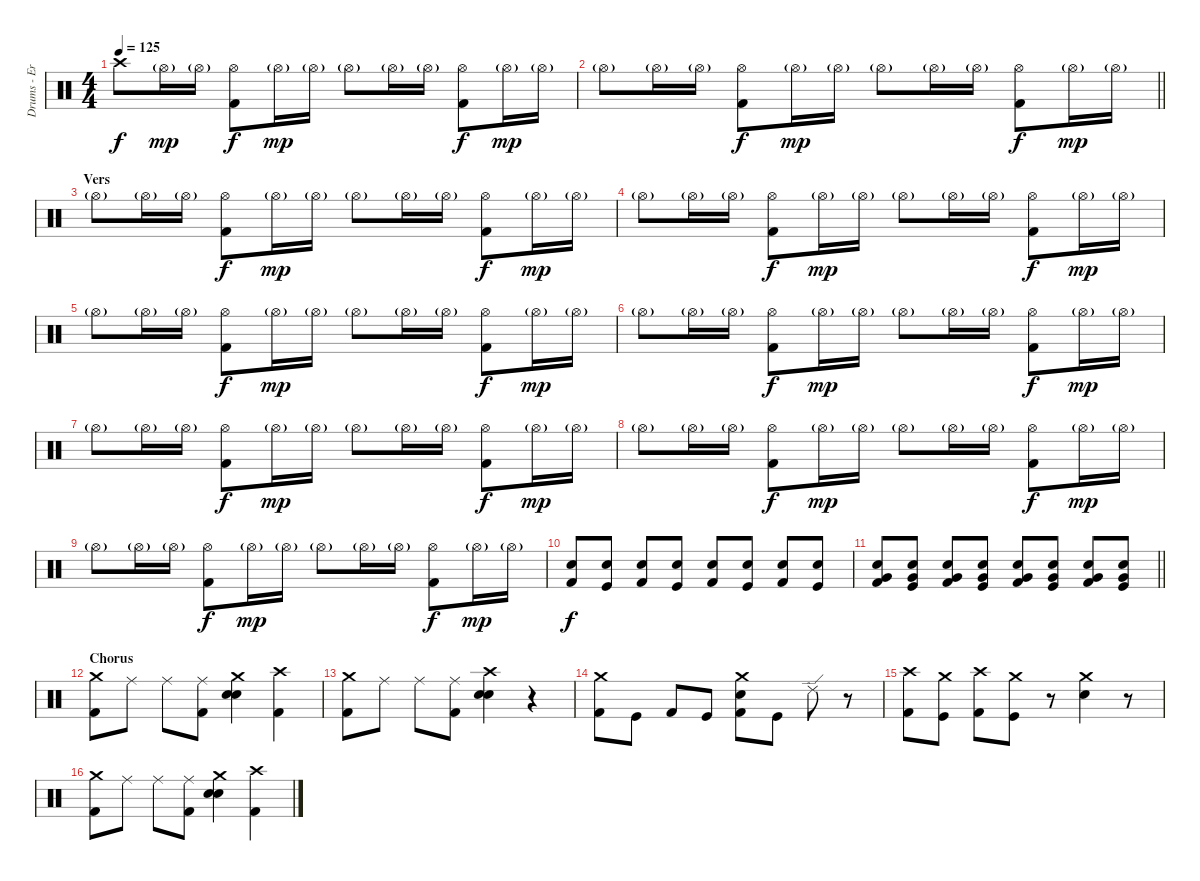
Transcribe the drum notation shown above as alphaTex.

\track ("Drums - Eric Young" "Drums - Er") {instrument percussion}
\staff {score}
\articulation defaults
\ts (4 4)
\tempo 125
\clef neutral
\ks c "Crash high (hit)".8{dy f} "Hi-Hat (open)"{g}.16{dy mp} "Hi-Hat (open)"{g}.16
("Hi-Hat (open)" "Kick (hit) 2").8{dy f} "Hi-Hat (open)"{g}.16{dy mp} "Hi-Hat (open)"{g}.16 "Hi-Hat (open)"{g}.8 "Hi-Hat (open)"{g}.16 "Hi-Hat (open)"{g}.16 ("Hi-Hat (open)" "Kick (hit) 2").8{dy f} "Hi-Hat (open)"{g}.16{dy mp} "Hi-Hat (open)"{g}.16 |
\barLineRight lightlight "Hi-Hat (open)"{g}.8 "Hi-Hat (open)"{g}.16 "Hi-Hat (open)"{g}.16
("Hi-Hat (open)" "Kick (hit) 2").8{dy f} "Hi-Hat (open)"{g}.16{dy mp} "Hi-Hat (open)"{g}.16 "Hi-Hat (open)"{g}.8 "Hi-Hat (open)"{g}.16 "Hi-Hat (open)"{g}.16 ("Hi-Hat (open)" "Kick (hit) 2").8{dy f} "Hi-Hat (open)"{g}.16{dy mp} "Hi-Hat (open)"{g}.16 |
\section ("" "Vers")
"Hi-Hat (open)"{g}.8 "Hi-Hat (open)"{g}.16 "Hi-Hat (open)"{g}.16 ("Hi-Hat (open)" "Kick (hit) 2").8{dy f} "Hi-Hat (open)"{g}.16{dy mp} "Hi-Hat (open)"{g}.16 "Hi-Hat (open)"{g}.8 "Hi-Hat (open)"{g}.16 "Hi-Hat (open)"{g}.16 ("Hi-Hat (open)" "Kick (hit) 2").8{dy f} "Hi-Hat (open)"{g}.16{dy mp} "Hi-Hat (open)"{g}.16 |
"Hi-Hat (open)"{g}.8 "Hi-Hat (open)"{g}.16 "Hi-Hat (open)"{g}.16 ("Hi-Hat (open)" "Kick (hit) 2").8{dy f} "Hi-Hat (open)"{g}.16{dy mp} "Hi-Hat (open)"{g}.16 "Hi-Hat (open)"{g}.8 "Hi-Hat (open)"{g}.16 "Hi-Hat (open)"{g}.16 ("Hi-Hat (open)" "Kick (hit) 2").8{dy f} "Hi-Hat (open)"{g}.16{dy mp} "Hi-Hat (open)"{g}.16 |
"Hi-Hat (open)"{g}.8 "Hi-Hat (open)"{g}.16 "Hi-Hat (open)"{g}.16 ("Hi-Hat (open)" "Kick (hit) 2").8{dy f} "Hi-Hat (open)"{g}.16{dy mp} "Hi-Hat (open)"{g}.16 "Hi-Hat (open)"{g}.8 "Hi-Hat (open)"{g}.16 "Hi-Hat (open)"{g}.16 ("Hi-Hat (open)" "Kick (hit) 2").8{dy f} "Hi-Hat (open)"{g}.16{dy mp} "Hi-Hat (open)"{g}.16 |
"Hi-Hat (open)"{g}.8 "Hi-Hat (open)"{g}.16 "Hi-Hat (open)"{g}.16 ("Hi-Hat (open)" "Kick (hit) 2").8{dy f} "Hi-Hat (open)"{g}.16{dy mp} "Hi-Hat (open)"{g}.16 "Hi-Hat (open)"{g}.8 "Hi-Hat (open)"{g}.16 "Hi-Hat (open)"{g}.16 ("Hi-Hat (open)" "Kick (hit) 2").8{dy f} "Hi-Hat (open)"{g}.16{dy mp} "Hi-Hat (open)"{g}.16 |
"Hi-Hat (open)"{g}.8 "Hi-Hat (open)"{g}.16 "Hi-Hat (open)"{g}.16 ("Hi-Hat (open)" "Kick (hit) 2").8{dy f} "Hi-Hat (open)"{g}.16{dy mp} "Hi-Hat (open)"{g}.16 "Hi-Hat (open)"{g}.8 "Hi-Hat (open)"{g}.16 "Hi-Hat (open)"{g}.16 ("Hi-Hat (open)" "Kick (hit) 2").8{dy f} "Hi-Hat (open)"{g}.16{dy mp} "Hi-Hat (open)"{g}.16 |
"Hi-Hat (open)"{g}.8 "Hi-Hat (open)"{g}.16 "Hi-Hat (open)"{g}.16 ("Hi-Hat (open)" "Kick (hit) 2").8{dy f} "Hi-Hat (open)"{g}.16{dy mp} "Hi-Hat (open)"{g}.16 "Hi-Hat (open)"{g}.8 "Hi-Hat (open)"{g}.16 "Hi-Hat (open)"{g}.16 ("Hi-Hat (open)" "Kick (hit) 2").8{dy f} "Hi-Hat (open)"{g}.16{dy mp} "Hi-Hat (open)"{g}.16 |
"Hi-Hat (open)"{g}.8 "Hi-Hat (open)"{g}.16 "Hi-Hat (open)"{g}.16 ("Hi-Hat (open)" "Kick (hit) 2").8{dy f} "Hi-Hat (open)"{g}.16{dy mp} "Hi-Hat (open)"{g}.16 "Hi-Hat (open)"{g}.8 "Hi-Hat (open)"{g}.16 "Hi-Hat (open)"{g}.16 ("Hi-Hat (open)" "Kick (hit) 2").8{dy f} "Hi-Hat (open)"{g}.16{dy mp} "Hi-Hat (open)"{g}.16 |
("Electric Snare (hit)" "Kick (hit) 2").8{dy f} ("Electric Snare (hit)" "Kick (hit)").8 ("Electric Snare (hit)" "Kick (hit) 2").8 ("Electric Snare (hit)" "Kick (hit)").8 ("Electric Snare (hit)" "Kick (hit) 2").8 ("Electric Snare (hit)" "Kick (hit)").8 ("Electric Snare (hit)" "Kick (hit) 2").8 ("Electric Snare (hit)" "Kick (hit)").8 |
\barLineRight lightlight
("Electric Snare (hit)" "Very Low Tom (hit)" "Kick (hit) 2").8 ("Electric Snare (hit)" "Very Low Tom (hit)" "Kick (hit)").8 ("Electric Snare (hit)" "Very Low Tom (hit)" "Kick (hit) 2").8 ("Electric Snare (hit)" "Very Low Tom (hit)" "Kick (hit)").8 ("Electric Snare (hit)" "Very Low Tom (hit)" "Kick (hit) 2").8 ("Electric Snare (hit)" "Very Low Tom (hit)" "Kick (hit)").8 ("Electric Snare (hit)" "Very Low Tom (hit)" "Kick (hit) 2").8 ("Electric Snare (hit)" "Very Low Tom (hit)" "Kick (hit)").8 |
\section ("" "Chorus")
("Crash medium (hit)" "Kick (hit) 2").8 "Ride (middle)".8 "Ride (middle)".8 ("Ride (middle)" "Kick (hit) 2").8 ("Crash medium (hit)" "Snare (hit) 2" "Electric Snare (hit)").4 ("Crash high (hit)" "Kick (hit) 2").4 |
("Crash medium (hit)" "Kick (hit) 2").8 "Ride (middle)".8 "Ride (middle)".8 ("Ride (middle)" "Kick (hit) 2").8 ("Crash high (hit)" "Electric Snare (hit)" "Snare (hit) 2").4 r.4 |
("Crash medium (hit)" "Kick (hit) 2").8 "Kick (hit)".8 "Kick (hit) 2".8 "Kick (hit)".8 ("Crash medium (hit)" "Electric Snare (hit)" "Kick (hit) 2").8 "Kick (hit)".8 "Ride (edge) 2".8 r.8 |
("Crash high (hit)" "Kick (hit) 2").8 ("Crash medium (hit)" "Kick (hit)").8 ("Crash high (hit)" "Kick (hit) 2").8 ("Crash medium (hit)" "Kick (hit)").8 r.8 ("Crash medium (hit)" "Electric Snare (hit)").4 r.8 |
("Crash medium (hit)" "Kick (hit) 2").8 "Ride (middle)".8 "Ride (middle)".8 ("Ride (middle)" "Kick (hit) 2").8 ("Crash medium (hit)" "Snare (hit) 2" "Electric Snare (hit)").4 ("Crash high (hit)" "Kick (hit) 2").4
